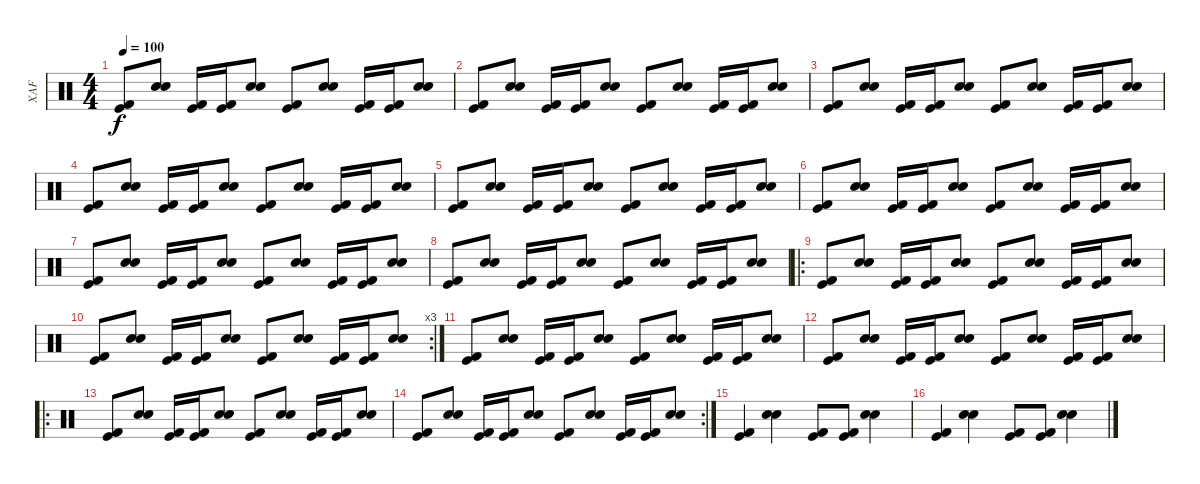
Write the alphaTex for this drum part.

\track ("XAF" "XAF") {instrument percussion}
\staff {score}
\articulation defaults
\ts (4 4)
\tempo 100
\clef neutral
\ks c
("Kick (hit) 2" "Kick (hit)").8{dy f} ("Electric Snare (hit)" "Snare (hit) 2").8 ("Kick (hit) 2" "Kick (hit)").16 ("Kick (hit) 2" "Kick (hit)").16 ("Electric Snare (hit)" "Snare (hit) 2").8 ("Kick (hit) 2" "Kick (hit)").8 ("Electric Snare (hit)" "Snare (hit) 2").8 ("Kick (hit) 2" "Kick (hit)").16 ("Kick (hit) 2" "Kick (hit)").16 ("Electric Snare (hit)" "Snare (hit) 2").8 |
("Kick (hit) 2" "Kick (hit)").8 ("Electric Snare (hit)" "Snare (hit) 2").8 ("Kick (hit) 2" "Kick (hit)").16 ("Kick (hit) 2" "Kick (hit)").16 ("Electric Snare (hit)" "Snare (hit) 2").8 ("Kick (hit) 2" "Kick (hit)").8 ("Electric Snare (hit)" "Snare (hit) 2").8 ("Kick (hit) 2" "Kick (hit)").16 ("Kick (hit) 2" "Kick (hit)").16 ("Electric Snare (hit)" "Snare (hit) 2").8 |
("Kick (hit) 2" "Kick (hit)").8 ("Electric Snare (hit)" "Snare (hit) 2").8 ("Kick (hit) 2" "Kick (hit)").16 ("Kick (hit) 2" "Kick (hit)").16 ("Electric Snare (hit)" "Snare (hit) 2").8 ("Kick (hit) 2" "Kick (hit)").8 ("Electric Snare (hit)" "Snare (hit) 2").8 ("Kick (hit) 2" "Kick (hit)").16 ("Kick (hit) 2" "Kick (hit)").16 ("Electric Snare (hit)" "Snare (hit) 2").8 |
("Kick (hit) 2" "Kick (hit)").8 ("Electric Snare (hit)" "Snare (hit) 2").8 ("Kick (hit) 2" "Kick (hit)").16 ("Kick (hit) 2" "Kick (hit)").16 ("Electric Snare (hit)" "Snare (hit) 2").8 ("Kick (hit) 2" "Kick (hit)").8 ("Electric Snare (hit)" "Snare (hit) 2").8 ("Kick (hit) 2" "Kick (hit)").16 ("Kick (hit) 2" "Kick (hit)").16 ("Electric Snare (hit)" "Snare (hit) 2").8 |
("Kick (hit) 2" "Kick (hit)").8 ("Electric Snare (hit)" "Snare (hit) 2").8 ("Kick (hit) 2" "Kick (hit)").16 ("Kick (hit) 2" "Kick (hit)").16 ("Electric Snare (hit)" "Snare (hit) 2").8 ("Kick (hit) 2" "Kick (hit)").8 ("Electric Snare (hit)" "Snare (hit) 2").8 ("Kick (hit) 2" "Kick (hit)").16 ("Kick (hit) 2" "Kick (hit)").16 ("Electric Snare (hit)" "Snare (hit) 2").8 |
("Kick (hit) 2" "Kick (hit)").8 ("Electric Snare (hit)" "Snare (hit) 2").8 ("Kick (hit) 2" "Kick (hit)").16 ("Kick (hit) 2" "Kick (hit)").16 ("Electric Snare (hit)" "Snare (hit) 2").8 ("Kick (hit) 2" "Kick (hit)").8 ("Electric Snare (hit)" "Snare (hit) 2").8 ("Kick (hit) 2" "Kick (hit)").16 ("Kick (hit) 2" "Kick (hit)").16 ("Electric Snare (hit)" "Snare (hit) 2").8 |
("Kick (hit) 2" "Kick (hit)").8 ("Electric Snare (hit)" "Snare (hit) 2").8 ("Kick (hit) 2" "Kick (hit)").16 ("Kick (hit) 2" "Kick (hit)").16 ("Electric Snare (hit)" "Snare (hit) 2").8 ("Kick (hit) 2" "Kick (hit)").8 ("Electric Snare (hit)" "Snare (hit) 2").8 ("Kick (hit) 2" "Kick (hit)").16 ("Kick (hit) 2" "Kick (hit)").16 ("Electric Snare (hit)" "Snare (hit) 2").8 |
("Kick (hit) 2" "Kick (hit)").8 ("Electric Snare (hit)" "Snare (hit) 2").8 ("Kick (hit) 2" "Kick (hit)").16 ("Kick (hit) 2" "Kick (hit)").16 ("Electric Snare (hit)" "Snare (hit) 2").8 ("Kick (hit) 2" "Kick (hit)").8 ("Electric Snare (hit)" "Snare (hit) 2").8 ("Kick (hit) 2" "Kick (hit)").16 ("Kick (hit) 2" "Kick (hit)").16 ("Electric Snare (hit)" "Snare (hit) 2").8 |
\ro
("Kick (hit) 2" "Kick (hit)").8 ("Electric Snare (hit)" "Snare (hit) 2").8 ("Kick (hit) 2" "Kick (hit)").16 ("Kick (hit) 2" "Kick (hit)").16 ("Electric Snare (hit)" "Snare (hit) 2").8 ("Kick (hit) 2" "Kick (hit)").8 ("Electric Snare (hit)" "Snare (hit) 2").8 ("Kick (hit) 2" "Kick (hit)").16 ("Kick (hit) 2" "Kick (hit)").16 ("Electric Snare (hit)" "Snare (hit) 2").8 |
\rc 3
("Kick (hit) 2" "Kick (hit)").8 ("Electric Snare (hit)" "Snare (hit) 2").8 ("Kick (hit) 2" "Kick (hit)").16 ("Kick (hit) 2" "Kick (hit)").16 ("Electric Snare (hit)" "Snare (hit) 2").8 ("Kick (hit) 2" "Kick (hit)").8 ("Electric Snare (hit)" "Snare (hit) 2").8 ("Kick (hit) 2" "Kick (hit)").16 ("Kick (hit) 2" "Kick (hit)").16 ("Electric Snare (hit)" "Snare (hit) 2").8 |
("Kick (hit) 2" "Kick (hit)").8 ("Electric Snare (hit)" "Snare (hit) 2").8 ("Kick (hit) 2" "Kick (hit)").16 ("Kick (hit) 2" "Kick (hit)").16 ("Electric Snare (hit)" "Snare (hit) 2").8 ("Kick (hit) 2" "Kick (hit)").8 ("Electric Snare (hit)" "Snare (hit) 2").8 ("Kick (hit) 2" "Kick (hit)").16 ("Kick (hit) 2" "Kick (hit)").16 ("Electric Snare (hit)" "Snare (hit) 2").8 |
("Kick (hit) 2" "Kick (hit)").8 ("Electric Snare (hit)" "Snare (hit) 2").8 ("Kick (hit) 2" "Kick (hit)").16 ("Kick (hit) 2" "Kick (hit)").16 ("Electric Snare (hit)" "Snare (hit) 2").8 ("Kick (hit) 2" "Kick (hit)").8 ("Electric Snare (hit)" "Snare (hit) 2").8 ("Kick (hit) 2" "Kick (hit)").16 ("Kick (hit) 2" "Kick (hit)").16 ("Electric Snare (hit)" "Snare (hit) 2").8 |
\ro
("Kick (hit) 2" "Kick (hit)").8 ("Electric Snare (hit)" "Snare (hit) 2").8 ("Kick (hit) 2" "Kick (hit)").16 ("Kick (hit) 2" "Kick (hit)").16 ("Electric Snare (hit)" "Snare (hit) 2").8 ("Kick (hit) 2" "Kick (hit)").8 ("Electric Snare (hit)" "Snare (hit) 2").8 ("Kick (hit) 2" "Kick (hit)").16 ("Kick (hit) 2" "Kick (hit)").16 ("Electric Snare (hit)" "Snare (hit) 2").8 |
\rc 2
("Kick (hit) 2" "Kick (hit)").8 ("Electric Snare (hit)" "Snare (hit) 2").8 ("Kick (hit) 2" "Kick (hit)").16 ("Kick (hit) 2" "Kick (hit)").16 ("Electric Snare (hit)" "Snare (hit) 2").8 ("Kick (hit) 2" "Kick (hit)").8 ("Electric Snare (hit)" "Snare (hit) 2").8 ("Kick (hit) 2" "Kick (hit)").16 ("Kick (hit) 2" "Kick (hit)").16 ("Electric Snare (hit)" "Snare (hit) 2").8 |
("Kick (hit) 2" "Kick (hit)").4 ("Electric Snare (hit)" "Snare (hit) 2").4 ("Kick (hit) 2" "Kick (hit)").8 ("Kick (hit) 2" "Kick (hit)").8 ("Electric Snare (hit)" "Snare (hit) 2").4 |
("Kick (hit) 2" "Kick (hit)").4 ("Electric Snare (hit)" "Snare (hit) 2").4 ("Kick (hit) 2" "Kick (hit)").8 ("Kick (hit) 2" "Kick (hit)").8 ("Electric Snare (hit)" "Snare (hit) 2").4
